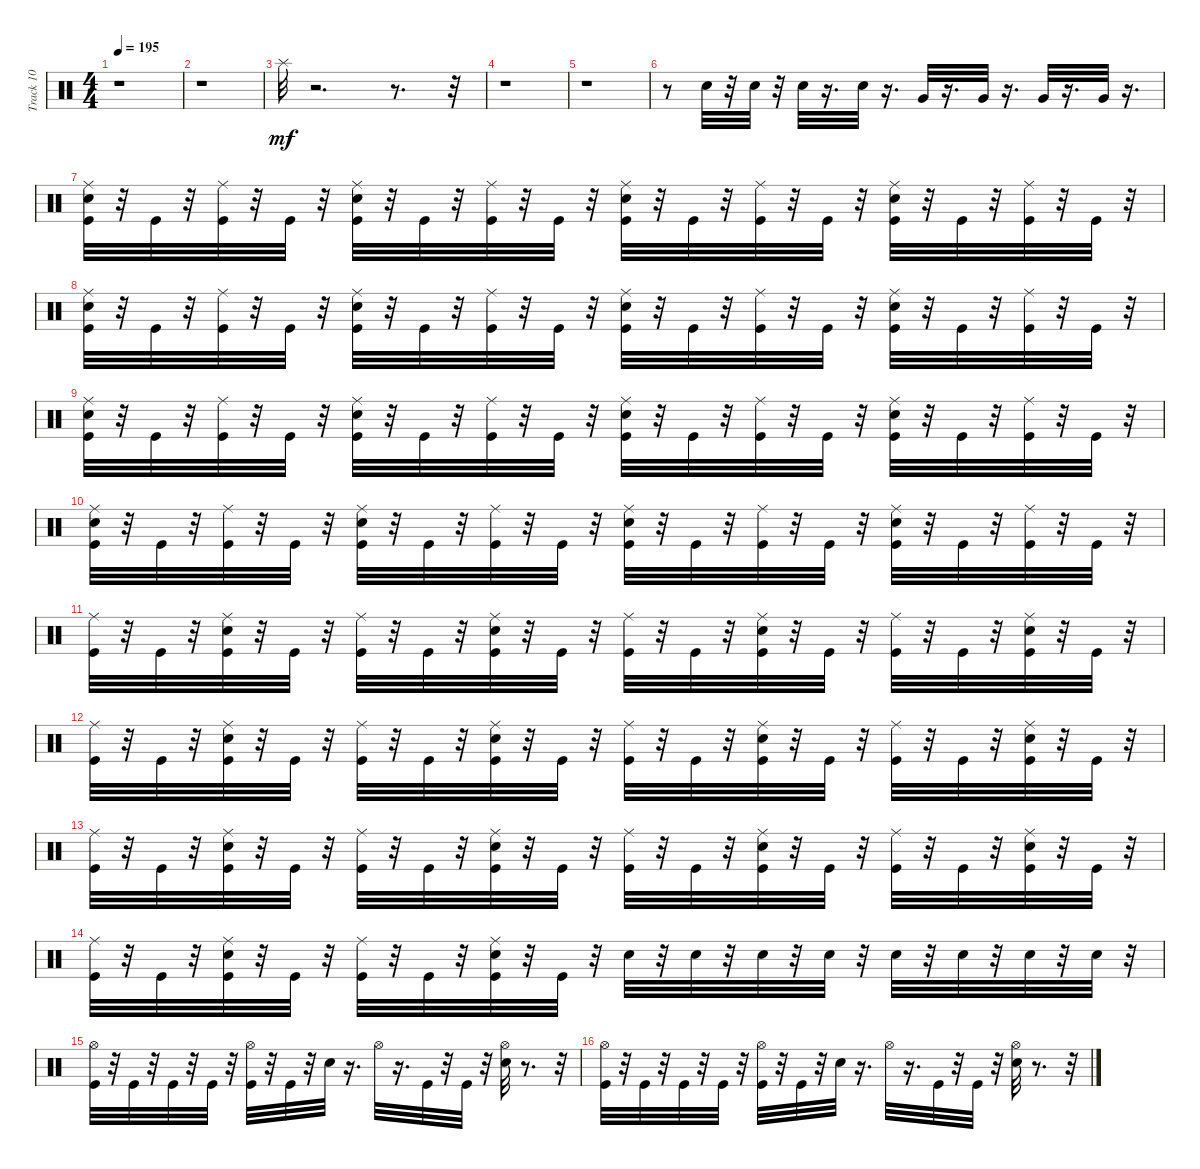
\track ("Track 10" "Track 10") {instrument percussion}
\staff {score}
\articulation defaults
\ts (4 4)
\tempo 195
\clef neutral
\ks c
r.1{dy mf} |
r.1 |
"Splash (hit)".32 r.2{d} r.8{d} r.32 |
r.1 |
r.1 |
r.8 "Electric Snare (hit)".32 r.32 "Electric Snare (hit)".32 r.32 "Electric Snare (hit)".32 r.16{d} "Electric Snare (hit)".32 r.16{d} "Very Low Tom (hit)".32 r.16{d} "Very Low Tom (hit)".32 r.16{d} "Very Low Tom (hit)".32 r.16{d} "Very Low Tom (hit)".32 r.16{d} |
("Ride (middle)" "Electric Snare (hit)" "Kick (hit)").32 r.32 "Kick (hit)".32 r.32 ("Ride (middle)" "Kick (hit)").32 r.32 "Kick (hit)".32 r.32 ("Ride (middle)" "Kick (hit)" "Electric Snare (hit)").32 r.32 "Kick (hit)".32 r.32 ("Ride (middle)" "Kick (hit)").32 r.32 "Kick (hit)".32 r.32 ("Ride (middle)" "Electric Snare (hit)" "Kick (hit)").32 r.32 "Kick (hit)".32 r.32 ("Kick (hit)" "Ride (middle)").32 r.32 "Kick (hit)".32 r.32 ("Ride (middle)" "Electric Snare (hit)" "Kick (hit)").32 r.32 "Kick (hit)".32 r.32 ("Ride (middle)" "Kick (hit)").32 r.32 "Kick (hit)".32 r.32 |
("Ride (middle)" "Electric Snare (hit)" "Kick (hit)").32 r.32 "Kick (hit)".32 r.32 ("Kick (hit)" "Ride (middle)").32 r.32 "Kick (hit)".32 r.32 ("Ride (middle)" "Electric Snare (hit)" "Kick (hit)").32 r.32 "Kick (hit)".32 r.32 ("Kick (hit)" "Ride (middle)").32 r.32 "Kick (hit)".32 r.32 ("Electric Snare (hit)" "Ride (middle)" "Kick (hit)").32 r.32 "Kick (hit)".32 r.32 ("Ride (middle)" "Kick (hit)").32 r.32 "Kick (hit)".32 r.32 ("Electric Snare (hit)" "Kick (hit)" "Ride (middle)").32 r.32 "Kick (hit)".32 r.32 ("Ride (middle)" "Kick (hit)").32 r.32 "Kick (hit)".32 r.32 |
("Ride (middle)" "Electric Snare (hit)" "Kick (hit)").32 r.32 "Kick (hit)".32 r.32 ("Kick (hit)" "Ride (middle)").32 r.32 "Kick (hit)".32 r.32 ("Ride (middle)" "Electric Snare (hit)" "Kick (hit)").32 r.32 "Kick (hit)".32 r.32 ("Kick (hit)" "Ride (middle)").32 r.32 "Kick (hit)".32 r.32 ("Electric Snare (hit)" "Ride (middle)" "Kick (hit)").32 r.32 "Kick (hit)".32 r.32 ("Ride (middle)" "Kick (hit)").32 r.32 "Kick (hit)".32 r.32 ("Electric Snare (hit)" "Kick (hit)" "Ride (middle)").32 r.32 "Kick (hit)".32 r.32 ("Ride (middle)" "Kick (hit)").32 r.32 "Kick (hit)".32 r.32 |
("Ride (middle)" "Electric Snare (hit)" "Kick (hit)").32 r.32 "Kick (hit)".32 r.32 ("Kick (hit)" "Ride (middle)").32 r.32 "Kick (hit)".32 r.32 ("Ride (middle)" "Electric Snare (hit)" "Kick (hit)").32 r.32 "Kick (hit)".32 r.32 ("Kick (hit)" "Ride (middle)").32 r.32 "Kick (hit)".32 r.32 ("Electric Snare (hit)" "Ride (middle)" "Kick (hit)").32 r.32 "Kick (hit)".32 r.32 ("Ride (middle)" "Kick (hit)").32 r.32 "Kick (hit)".32 r.32 ("Electric Snare (hit)" "Kick (hit)" "Ride (middle)").32 r.32 "Kick (hit)".32 r.32 ("Ride (middle)" "Kick (hit)").32 r.32 "Kick (hit)".32 r.32 |
("Ride (middle)" "Kick (hit)").32 r.32 "Kick (hit)".32 r.32 ("Ride (middle)" "Kick (hit)" "Electric Snare (hit)").32 r.32 "Kick (hit)".32 r.32 ("Ride (middle)" "Kick (hit)").32 r.32 "Kick (hit)".32 r.32 ("Ride (middle)" "Kick (hit)" "Electric Snare (hit)").32 r.32 "Kick (hit)".32 r.32 ("Kick (hit)" "Ride (middle)").32 r.32 "Kick (hit)".32 r.32 ("Electric Snare (hit)" "Ride (middle)" "Kick (hit)").32 r.32 "Kick (hit)".32 r.32 ("Kick (hit)" "Ride (middle)").32 r.32 "Kick (hit)".32 r.32 ("Ride (middle)" "Electric Snare (hit)" "Kick (hit)").32 r.32 "Kick (hit)".32 r.32 |
("Ride (middle)" "Kick (hit)").32 r.32 "Kick (hit)".32 r.32 ("Ride (middle)" "Kick (hit)" "Electric Snare (hit)").32 r.32 "Kick (hit)".32 r.32 ("Ride (middle)" "Kick (hit)").32 r.32 "Kick (hit)".32 r.32 ("Ride (middle)" "Kick (hit)" "Electric Snare (hit)").32 r.32 "Kick (hit)".32 r.32 ("Kick (hit)" "Ride (middle)").32 r.32 "Kick (hit)".32 r.32 ("Electric Snare (hit)" "Ride (middle)" "Kick (hit)").32 r.32 "Kick (hit)".32 r.32 ("Kick (hit)" "Ride (middle)").32 r.32 "Kick (hit)".32 r.32 ("Ride (middle)" "Electric Snare (hit)" "Kick (hit)").32 r.32 "Kick (hit)".32 r.32 |
("Ride (middle)" "Kick (hit)").32 r.32 "Kick (hit)".32 r.32 ("Ride (middle)" "Kick (hit)" "Electric Snare (hit)").32 r.32 "Kick (hit)".32 r.32 ("Ride (middle)" "Kick (hit)").32 r.32 "Kick (hit)".32 r.32 ("Ride (middle)" "Kick (hit)" "Electric Snare (hit)").32 r.32 "Kick (hit)".32 r.32 ("Kick (hit)" "Ride (middle)").32 r.32 "Kick (hit)".32 r.32 ("Electric Snare (hit)" "Ride (middle)" "Kick (hit)").32 r.32 "Kick (hit)".32 r.32 ("Kick (hit)" "Ride (middle)").32 r.32 "Kick (hit)".32 r.32 ("Ride (middle)" "Electric Snare (hit)" "Kick (hit)").32 r.32 "Kick (hit)".32 r.32 |
("Ride (middle)" "Kick (hit)").32 r.32 "Kick (hit)".32 r.32 ("Ride (middle)" "Electric Snare (hit)" "Kick (hit)").32 r.32 "Kick (hit)".32 r.32 ("Kick (hit)" "Ride (middle)").32 r.32 "Kick (hit)".32 r.32 ("Ride (middle)" "Electric Snare (hit)" "Kick (hit)").32 r.32 "Kick (hit)".32 r.32 "Electric Snare (hit)".32 r.32 "Electric Snare (hit)".32 r.32 "Electric Snare (hit)".32 r.32 "Electric Snare (hit)".32 r.32 "Electric Snare (hit)".32 r.32 "Electric Snare (hit)".32 r.32 "Electric Snare (hit)".32 r.32 "Electric Snare (hit)".32 r.32 |
("Kick (hit)" "Hi-Hat (open)").32 r.32 "Kick (hit)".32 r.32 "Kick (hit)".32 r.32 "Kick (hit)".32 r.32 ("Kick (hit)" "Hi-Hat (open)").32 r.32 "Kick (hit)".32 r.32 "Electric Snare (hit)".32 r.16{d} "Hi-Hat (open)".32 r.16{d} "Kick (hit)".32 r.32 "Kick (hit)".32 r.32 ("Hi-Hat (open)" "Electric Snare (hit)").32 r.8{d} r.32 |
("Kick (hit)" "Hi-Hat (open)").32 r.32 "Kick (hit)".32 r.32 "Kick (hit)".32 r.32 "Kick (hit)".32 r.32 ("Kick (hit)" "Hi-Hat (open)").32 r.32 "Kick (hit)".32 r.32 "Electric Snare (hit)".32 r.16{d} "Hi-Hat (open)".32 r.16{d} "Kick (hit)".32 r.32 "Kick (hit)".32 r.32 ("Electric Snare (hit)" "Hi-Hat (open)").32 r.8{d} r.32
